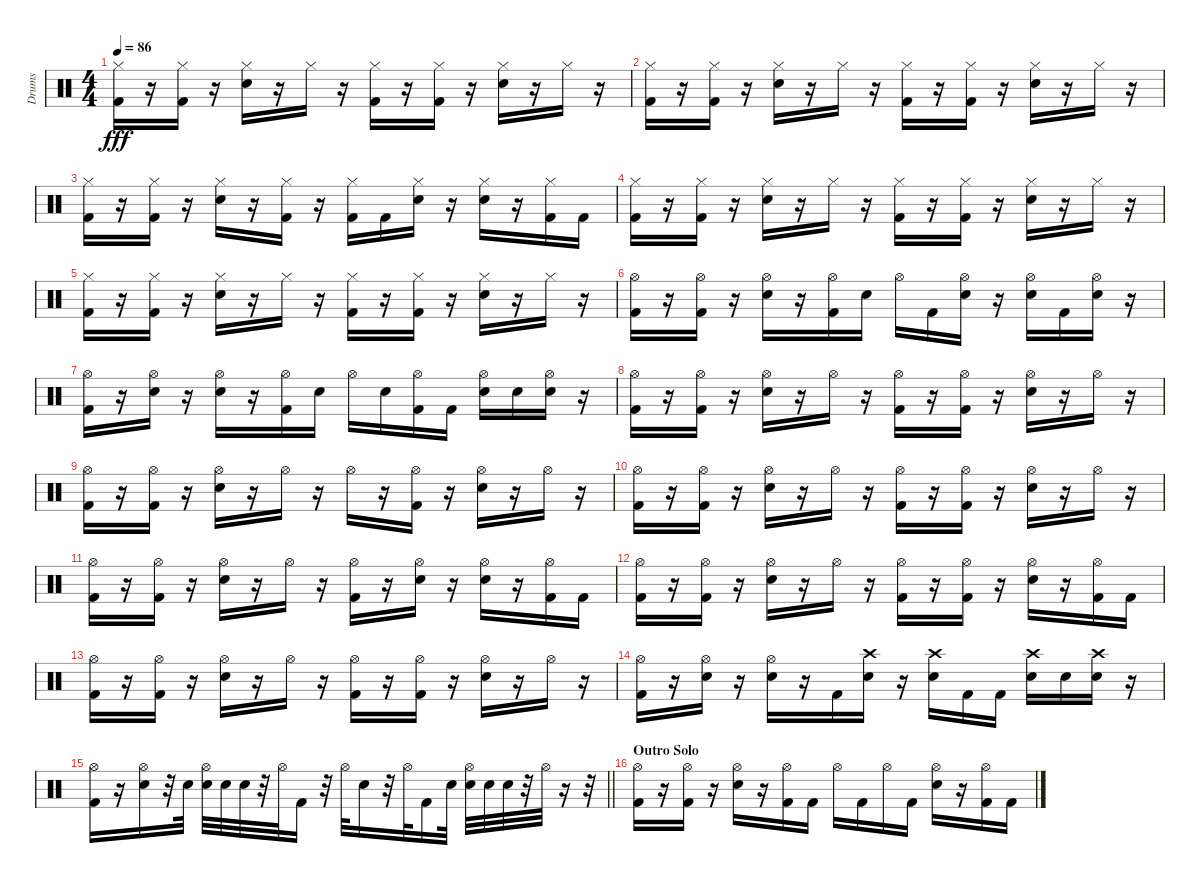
\track ("Drums" "Drums") {instrument percussion}
\staff {score}
\articulation defaults
\ts (4 4)
\tempo 86
\clef neutral
\ks c
("Hi-Hat (closed)" "Kick (hit) 2").16{dy fff} r.16 ("Hi-Hat (closed)" "Kick (hit) 2").16 r.16 ("Hi-Hat (closed)" "Electric Snare (hit)").16 r.16 "Hi-Hat (closed)".16 r.16 ("Hi-Hat (closed)" "Kick (hit) 2").16 r.16 ("Hi-Hat (closed)" "Kick (hit) 2").16 r.16 ("Hi-Hat (closed)" "Electric Snare (hit)").16 r.16 "Hi-Hat (closed)".16 r.16 |
("Hi-Hat (closed)" "Kick (hit) 2").16 r.16 ("Hi-Hat (closed)" "Kick (hit) 2").16 r.16 ("Hi-Hat (closed)" "Electric Snare (hit)").16 r.16 "Hi-Hat (closed)".16 r.16 ("Hi-Hat (closed)" "Kick (hit) 2").16 r.16 ("Hi-Hat (closed)" "Kick (hit) 2").16 r.16 ("Hi-Hat (closed)" "Electric Snare (hit)").16 r.16 "Hi-Hat (closed)".16 r.16 |
("Hi-Hat (closed)" "Kick (hit) 2").16 r.16 ("Hi-Hat (closed)" "Kick (hit) 2").16 r.16 ("Hi-Hat (closed)" "Electric Snare (hit)").16 r.16 ("Hi-Hat (closed)" "Kick (hit) 2").16 r.16 ("Hi-Hat (closed)" "Kick (hit) 2").16 "Kick (hit) 2".16 ("Hi-Hat (closed)" "Electric Snare (hit)").16 r.16 ("Hi-Hat (closed)" "Electric Snare (hit)").16 r.16 ("Hi-Hat (closed)" "Kick (hit) 2").16 "Kick (hit) 2".16 |
("Hi-Hat (closed)" "Kick (hit) 2").16 r.16 ("Hi-Hat (closed)" "Kick (hit) 2").16 r.16 ("Hi-Hat (closed)" "Electric Snare (hit)").16 r.16 "Hi-Hat (closed)".16 r.16 ("Hi-Hat (closed)" "Kick (hit) 2").16 r.16 ("Hi-Hat (closed)" "Kick (hit) 2").16 r.16 ("Hi-Hat (closed)" "Electric Snare (hit)").16 r.16 "Hi-Hat (closed)".16 r.16 |
("Hi-Hat (closed)" "Kick (hit) 2").16 r.16 ("Hi-Hat (closed)" "Kick (hit) 2").16 r.16 ("Hi-Hat (closed)" "Electric Snare (hit)").16 r.16 "Hi-Hat (closed)".16 r.16 ("Hi-Hat (closed)" "Kick (hit) 2").16 r.16 ("Hi-Hat (closed)" "Kick (hit) 2").16 r.16 ("Hi-Hat (closed)" "Electric Snare (hit)").16 r.16 "Hi-Hat (closed)".16 r.16 |
("Hi-Hat (open)" "Kick (hit) 2").16 r.16 ("Hi-Hat (open)" "Kick (hit) 2").16 r.16 ("Hi-Hat (open)" "Electric Snare (hit)").16 r.16 ("Hi-Hat (open)" "Kick (hit) 2").16 "Electric Snare (hit)".16 "Hi-Hat (open)".16 "Kick (hit) 2".16 ("Hi-Hat (open)" "Electric Snare (hit)").16 r.16 ("Hi-Hat (open)" "Electric Snare (hit)").16 "Kick (hit) 2".16 ("Hi-Hat (open)" "Electric Snare (hit)").16 r.16 |
("Hi-Hat (open)" "Kick (hit) 2").16 r.16 ("Hi-Hat (open)" "Electric Snare (hit)").16 r.16 ("Hi-Hat (open)" "Electric Snare (hit)").16 r.16 ("Hi-Hat (open)" "Kick (hit) 2").16 "Electric Snare (hit)".16 "Hi-Hat (open)".16 "Electric Snare (hit)".16 ("Hi-Hat (open)" "Kick (hit) 2").16 "Kick (hit) 2".16 ("Hi-Hat (open)" "Electric Snare (hit)").16 "Electric Snare (hit)".16 ("Hi-Hat (open)" "Electric Snare (hit)").16 r.16 |
("Hi-Hat (open)" "Kick (hit) 2").16 r.16 ("Hi-Hat (open)" "Kick (hit) 2").16 r.16 ("Hi-Hat (open)" "Electric Snare (hit)").16 r.16 "Hi-Hat (open)".16 r.16 ("Hi-Hat (open)" "Kick (hit) 2").16 r.16 ("Hi-Hat (open)" "Kick (hit) 2").16 r.16 ("Hi-Hat (open)" "Electric Snare (hit)").16 r.16 "Hi-Hat (open)".16 r.16 |
("Hi-Hat (open)" "Kick (hit) 2").16 r.16 ("Hi-Hat (open)" "Kick (hit) 2").16 r.16 ("Hi-Hat (open)" "Electric Snare (hit)").16 r.16 "Hi-Hat (open)".16 r.16 "Hi-Hat (open)".16 r.16 ("Hi-Hat (open)" "Kick (hit) 2").16 r.16 ("Hi-Hat (open)" "Electric Snare (hit)").16 r.16 "Hi-Hat (open)".16 r.16 |
("Hi-Hat (open)" "Kick (hit) 2").16 r.16 ("Hi-Hat (open)" "Kick (hit) 2").16 r.16 ("Hi-Hat (open)" "Electric Snare (hit)").16 r.16 "Hi-Hat (open)".16 r.16 ("Hi-Hat (open)" "Kick (hit) 2").16 r.16 ("Hi-Hat (open)" "Kick (hit) 2").16 r.16 ("Hi-Hat (open)" "Electric Snare (hit)").16 r.16 "Hi-Hat (open)".16 r.16 |
("Hi-Hat (open)" "Kick (hit) 2").16 r.16 ("Hi-Hat (open)" "Kick (hit) 2").16 r.16 ("Hi-Hat (open)" "Electric Snare (hit)").16 r.16 "Hi-Hat (open)".16 r.16 ("Hi-Hat (open)" "Kick (hit) 2").16 r.16 ("Hi-Hat (open)" "Electric Snare (hit)").16 r.16 ("Hi-Hat (open)" "Electric Snare (hit)").16 r.16 ("Hi-Hat (open)" "Kick (hit) 2").16 "Kick (hit) 2".16 |
("Hi-Hat (open)" "Kick (hit) 2").16 r.16 ("Hi-Hat (open)" "Kick (hit) 2").16 r.16 ("Hi-Hat (open)" "Electric Snare (hit)").16 r.16 "Hi-Hat (open)".16 r.16 ("Hi-Hat (open)" "Kick (hit) 2").16 r.16 ("Hi-Hat (open)" "Kick (hit) 2").16 r.16 ("Hi-Hat (open)" "Electric Snare (hit)").16 r.16 ("Hi-Hat (open)" "Kick (hit) 2").16 "Kick (hit) 2".16 |
("Hi-Hat (open)" "Kick (hit) 2").16 r.16 ("Hi-Hat (open)" "Kick (hit) 2").16 r.16 ("Hi-Hat (open)" "Electric Snare (hit)").16 r.16 "Hi-Hat (open)".16 r.16 ("Hi-Hat (open)" "Kick (hit) 2").16 r.16 ("Hi-Hat (open)" "Kick (hit) 2").16 r.16 ("Hi-Hat (open)" "Electric Snare (hit)").16 r.16 "Hi-Hat (open)".16 r.16 |
("Hi-Hat (open)" "Kick (hit) 2").16 r.16 ("Hi-Hat (open)" "Electric Snare (hit)").16 r.16 ("Hi-Hat (open)" "Electric Snare (hit)").16 r.16 "Kick (hit) 2".16 ("Crash high (hit)" "Electric Snare (hit)").16 r.16 ("Crash high (hit)" "Electric Snare (hit)").16 "Kick (hit) 2".16 "Kick (hit) 2".16 ("Crash high (hit)" "Electric Snare (hit)").16 "Electric Snare (hit)".16 ("Crash high (hit)" "Electric Snare (hit)").16 r.16 |
\barLineRight lightlight
("Hi-Hat (open)" "Kick (hit) 2").16 r.16 ("Hi-Hat (open)" "Electric Snare (hit)").16 r.32 "Electric Snare (hit)".32 ("Hi-Hat (open)" "Electric Snare (hit)").32 "Electric Snare (hit)".32 "Electric Snare (hit)".32 r.32 "Hi-Hat (open)".32 "Kick (hit) 2".16 r.32 "Hi-Hat (open)".32 "Electric Snare (hit)".16 r.32 "Hi-Hat (open)".32 "Kick (hit) 2".16 "Electric Snare (hit)".32 ("Hi-Hat (open)" "Electric Snare (hit)").32 "Electric Snare (hit)".32 "Electric Snare (hit)".32 r.32 "Hi-Hat (open)".32 r.16 r.32 |
\section ("" "Outro Solo")
("Hi-Hat (open)" "Kick (hit) 2").16 r.16 ("Hi-Hat (open)" "Kick (hit) 2").16 r.16 ("Hi-Hat (open)" "Electric Snare (hit)").16 r.16 ("Hi-Hat (open)" "Kick (hit) 2").16 "Kick (hit) 2".16 "Hi-Hat (open)".16 "Kick (hit) 2".16 "Hi-Hat (open)".16 "Kick (hit) 2".16 ("Hi-Hat (open)" "Electric Snare (hit)").16 r.16 ("Hi-Hat (open)" "Kick (hit) 2").16 "Kick (hit) 2".16
